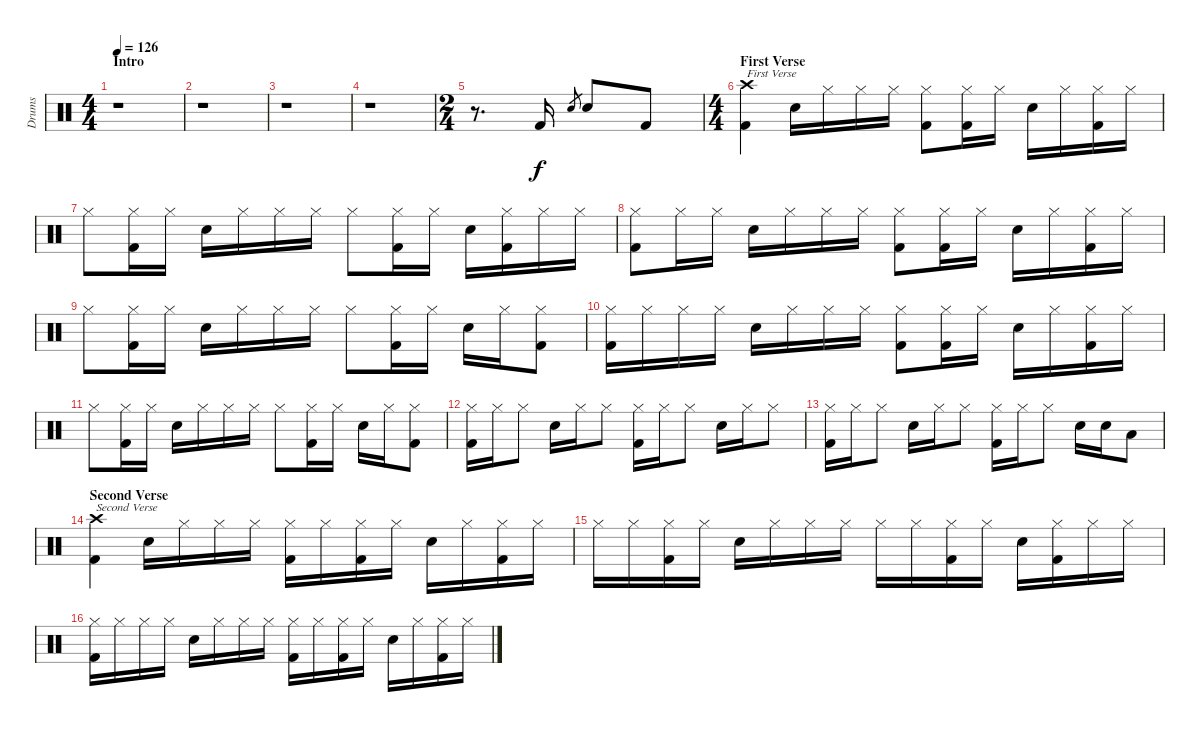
\track ("Drums" "Drums") {instrument percussion}
\staff {score}
\articulation defaults
\ts (4 4)
\section ("" "Intro")
\tempo 126
\clef neutral
\ks c
r.1{dy f} |
r.1 |
r.1 |
r.1 |
\ts (2 4)
r.8{d} "Kick (hit) 2".16 "Electric Snare (hit)".8{gr} "Electric Snare (hit)".8 "Kick (hit) 2".8 |
\ts (4 4)
\section ("" "First Verse")
("Crash high (hit)" "Kick (hit) 2").4{txt "First Verse"} "Electric Snare (hit)".16 "Hi-Hat (closed)".16 "Hi-Hat (closed)".16 "Hi-Hat (closed)".16 ("Hi-Hat (closed)" "Kick (hit) 2").8 ("Hi-Hat (closed)" "Kick (hit) 2").16 "Hi-Hat (closed)".16 "Electric Snare (hit)".16 "Hi-Hat (closed)".16 ("Hi-Hat (closed)" "Kick (hit) 2").16 "Hi-Hat (closed)".16 |
"Hi-Hat (closed)".8 ("Hi-Hat (closed)" "Kick (hit) 2").16 "Hi-Hat (closed)".16 "Electric Snare (hit)".16 "Hi-Hat (closed)".16 "Hi-Hat (closed)".16 "Hi-Hat (closed)".16 "Hi-Hat (closed)".8 ("Hi-Hat (closed)" "Kick (hit) 2").16 "Hi-Hat (closed)".16 "Electric Snare (hit)".16 ("Hi-Hat (closed)" "Kick (hit) 2").16 "Hi-Hat (closed)".16 "Hi-Hat (closed)".16 |
("Hi-Hat (closed)" "Kick (hit) 2").8 "Hi-Hat (closed)".16 "Hi-Hat (closed)".16 "Electric Snare (hit)".16 "Hi-Hat (closed)".16 "Hi-Hat (closed)".16 "Hi-Hat (closed)".16 ("Hi-Hat (closed)" "Kick (hit) 2").8 ("Hi-Hat (closed)" "Kick (hit) 2").16 "Hi-Hat (closed)".16 "Electric Snare (hit)".16 "Hi-Hat (closed)".16 ("Hi-Hat (closed)" "Kick (hit) 2").16 "Hi-Hat (closed)".16 |
"Hi-Hat (closed)".8 ("Hi-Hat (closed)" "Kick (hit) 2").16 "Hi-Hat (closed)".16 "Electric Snare (hit)".16 "Hi-Hat (closed)".16 "Hi-Hat (closed)".16 "Hi-Hat (closed)".16 "Hi-Hat (closed)".8 ("Hi-Hat (closed)" "Kick (hit) 2").16 "Hi-Hat (closed)".16 "Electric Snare (hit)".16 "Hi-Hat (closed)".16 ("Hi-Hat (closed)" "Kick (hit) 2").8 |
("Hi-Hat (closed)" "Kick (hit) 2").16 "Hi-Hat (closed)".16 "Hi-Hat (closed)".16 "Hi-Hat (closed)".16 "Electric Snare (hit)".16 "Hi-Hat (closed)".16 "Hi-Hat (closed)".16 "Hi-Hat (closed)".16 ("Hi-Hat (closed)" "Kick (hit) 2").8 ("Hi-Hat (closed)" "Kick (hit) 2").16 "Hi-Hat (closed)".16 "Electric Snare (hit)".16 "Hi-Hat (closed)".16 ("Hi-Hat (closed)" "Kick (hit) 2").16 "Hi-Hat (closed)".16 |
"Hi-Hat (closed)".8 ("Hi-Hat (closed)" "Kick (hit) 2").16 "Hi-Hat (closed)".16 "Electric Snare (hit)".16 "Hi-Hat (closed)".16 "Hi-Hat (closed)".16 "Hi-Hat (closed)".16 "Hi-Hat (closed)".8 ("Hi-Hat (closed)" "Kick (hit) 2").16 "Hi-Hat (closed)".16 "Electric Snare (hit)".16 "Hi-Hat (closed)".16 ("Hi-Hat (closed)" "Kick (hit) 2").8 |
("Hi-Hat (closed)" "Kick (hit) 2").16 "Hi-Hat (closed)".16 "Hi-Hat (closed)".8 "Electric Snare (hit)".16 "Hi-Hat (closed)".16 "Hi-Hat (closed)".8 ("Hi-Hat (closed)" "Kick (hit) 2").16 "Hi-Hat (closed)".16 "Hi-Hat (closed)".8 "Electric Snare (hit)".16 "Hi-Hat (closed)".16 "Hi-Hat (closed)".8 |
("Hi-Hat (closed)" "Kick (hit) 2").16 "Hi-Hat (closed)".16 "Hi-Hat (closed)".8 "Electric Snare (hit)".16 "Hi-Hat (closed)".16 "Hi-Hat (closed)".8 ("Hi-Hat (closed)" "Kick (hit) 2").16 "Hi-Hat (closed)".16 "Hi-Hat (closed)".8 "Electric Snare (hit)".16 "Electric Snare (hit)".16 "Low Tom (hit)".8 |
\section ("" "Second Verse")
("Crash high (hit)" "Kick (hit) 2").4{txt "Second Verse"} "Electric Snare (hit)".16 "Hi-Hat (closed)".16 "Hi-Hat (closed)".16 "Hi-Hat (closed)".16 ("Hi-Hat (closed)" "Kick (hit) 2").16 "Hi-Hat (closed)".16 ("Hi-Hat (closed)" "Kick (hit) 2").16 "Hi-Hat (closed)".16 "Electric Snare (hit)".16 "Hi-Hat (closed)".16 ("Hi-Hat (closed)" "Kick (hit) 2").16 "Hi-Hat (closed)".16 |
"Hi-Hat (closed)".16 "Hi-Hat (closed)".16 ("Hi-Hat (closed)" "Kick (hit) 2").16 "Hi-Hat (closed)".16 "Electric Snare (hit)".16 "Hi-Hat (closed)".16 "Hi-Hat (closed)".16 "Hi-Hat (closed)".16 "Hi-Hat (closed)".16 "Hi-Hat (closed)".16 ("Hi-Hat (closed)" "Kick (hit) 2").16 "Hi-Hat (closed)".16 "Electric Snare (hit)".16 ("Hi-Hat (closed)" "Kick (hit) 2").16 "Hi-Hat (closed)".16 "Hi-Hat (closed)".16 |
("Hi-Hat (closed)" "Kick (hit) 2").16 "Hi-Hat (closed)".16 "Hi-Hat (closed)".16 "Hi-Hat (closed)".16 "Electric Snare (hit)".16 "Hi-Hat (closed)".16 "Hi-Hat (closed)".16 "Hi-Hat (closed)".16 ("Hi-Hat (closed)" "Kick (hit) 2").16 "Hi-Hat (closed)".16 ("Hi-Hat (closed)" "Kick (hit) 2").16 "Hi-Hat (closed)".16 "Electric Snare (hit)".16 "Hi-Hat (closed)".16 ("Hi-Hat (closed)" "Kick (hit) 2").16 "Hi-Hat (closed)".16
